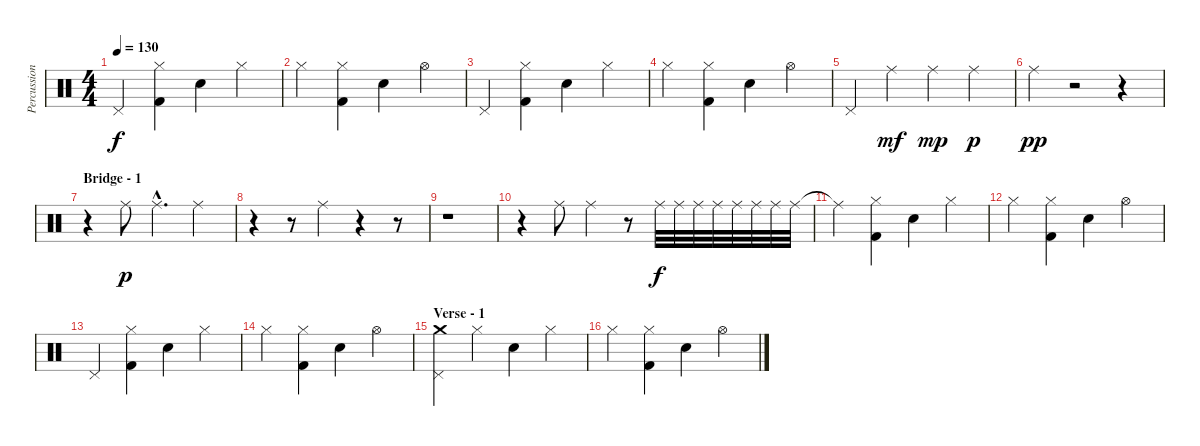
\track ("Percussion" "Percussion") {instrument percussion}
\staff {score}
\articulation defaults
\ts (4 4)
\tempo 130
\clef neutral
\ks c "Pedal Hi-Hat (hit)".4{dy f}
("Hi-Hat (closed)" "Kick (hit) 2").4 "Snare (hit) 2".4 "Hi-Hat (closed)".4 |
"Hi-Hat (closed)".4 ("Hi-Hat (closed)" "Kick (hit) 2").4 "Snare (hit) 2".4 "Hi-Hat (open)".4 |
"Pedal Hi-Hat (hit)".4 ("Hi-Hat (closed)" "Kick (hit) 2").4 "Snare (hit) 2".4 "Hi-Hat (closed)".4 |
"Hi-Hat (closed)".4 ("Hi-Hat (closed)" "Kick (hit) 2").4 "Snare (hit) 2".4 "Hi-Hat (open)".4 |
"Pedal Hi-Hat (hit)".4 "Ride (middle)".4{dy mf} "Ride (middle)".4{dy mp} "Ride (middle)".4{dy p} |
"Ride (middle)".4{dy pp} r.2 r.4 |
\section ("" "Bridge - 1")
r.4 "Ride (middle)".8{dy p} "Ride (middle)"{hac}.4{d} "Ride (middle)".4 |
r.4 r.8 "Ride (middle)".4 r.4 r.8 |
r.1 |
r.4 "Ride (middle)".8 "Ride (middle)".4 r.8{volume 0} "Ride (middle)".32{dy f volume 16} "Ride (middle)".32 "Ride (middle)".32 "Ride (middle)".32 "Ride (middle)".32 "Ride (middle)".32 "Ride (middle)".32 "Ride (middle)".32 |
"Ride (middle)"{t}.4 ("Hi-Hat (closed)" "Kick (hit) 2").4 "Snare (hit) 2".4 "Hi-Hat (closed)".4 |
"Hi-Hat (closed)".4 ("Hi-Hat (closed)" "Kick (hit) 2").4 "Snare (hit) 2".4 "Hi-Hat (open)".4 |
"Pedal Hi-Hat (hit)".4 ("Hi-Hat (closed)" "Kick (hit) 2").4 "Snare (hit) 2".4 "Hi-Hat (closed)".4 |
"Hi-Hat (closed)".4 ("Hi-Hat (closed)" "Kick (hit) 2").4 "Snare (hit) 2".4 "Hi-Hat (open)".4 |
\section ("" "Verse - 1")
("Crash medium (hit)" "Pedal Hi-Hat (hit)").4 "Hi-Hat (closed)".4 "Snare (hit) 2".4 "Hi-Hat (closed)".4 |
"Hi-Hat (closed)".4 ("Hi-Hat (closed)" "Kick (hit) 2").4 "Snare (hit) 2".4 "Hi-Hat (open)".4
